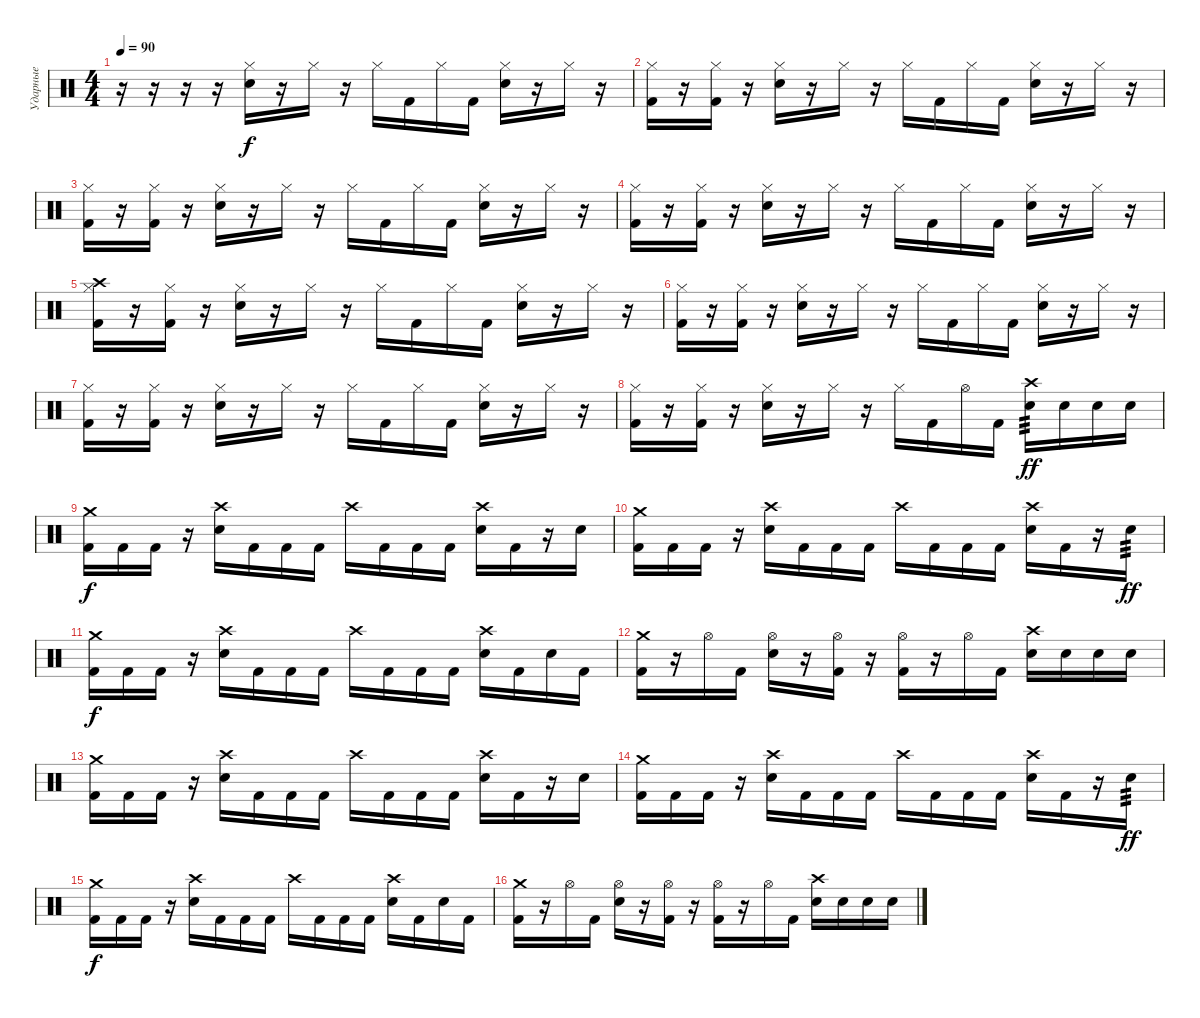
\track ("Ударные" "Ударные") {instrument percussion}
\staff {score}
\articulation defaults
\ts (4 4)
\tempo 90
\clef neutral
\ks c
r.16{dy f} r.16 r.16 r.16 ("Hi-Hat (closed)" "Electric Snare (hit)").16 r.16 "Hi-Hat (closed)".16 r.16 "Hi-Hat (closed)".16 "Kick (hit) 2".16 "Hi-Hat (closed)".16 "Kick (hit) 2".16 ("Hi-Hat (closed)" "Electric Snare (hit)").16 r.16 "Hi-Hat (closed)".16 r.16 |
("Hi-Hat (closed)" "Kick (hit) 2").16 r.16 ("Hi-Hat (closed)" "Kick (hit) 2").16 r.16 ("Hi-Hat (closed)" "Electric Snare (hit)").16 r.16 "Hi-Hat (closed)".16 r.16 "Hi-Hat (closed)".16 "Kick (hit) 2".16 "Hi-Hat (closed)".16 "Kick (hit) 2".16 ("Hi-Hat (closed)" "Electric Snare (hit)").16 r.16 "Hi-Hat (closed)".16 r.16 |
("Hi-Hat (closed)" "Kick (hit) 2").16 r.16 ("Hi-Hat (closed)" "Kick (hit) 2").16 r.16 ("Hi-Hat (closed)" "Electric Snare (hit)").16 r.16 "Hi-Hat (closed)".16 r.16 "Hi-Hat (closed)".16 "Kick (hit) 2".16 "Hi-Hat (closed)".16 "Kick (hit) 2".16 ("Hi-Hat (closed)" "Electric Snare (hit)").16 r.16 "Hi-Hat (closed)".16 r.16 |
("Hi-Hat (closed)" "Kick (hit) 2").16 r.16 ("Hi-Hat (closed)" "Kick (hit) 2").16 r.16 ("Hi-Hat (closed)" "Electric Snare (hit)").16 r.16 "Hi-Hat (closed)".16 r.16 "Hi-Hat (closed)".16 "Kick (hit) 2".16 "Hi-Hat (closed)".16 "Kick (hit) 2".16 ("Hi-Hat (closed)" "Electric Snare (hit)").16 r.16 "Hi-Hat (closed)".16 r.16 |
("Crash high (hit)" "Hi-Hat (closed)" "Kick (hit) 2").16 r.16 ("Hi-Hat (closed)" "Kick (hit) 2").16 r.16 ("Hi-Hat (closed)" "Electric Snare (hit)").16 r.16 "Hi-Hat (closed)".16 r.16 "Hi-Hat (closed)".16 "Kick (hit) 2".16 "Hi-Hat (closed)".16 "Kick (hit) 2".16 ("Hi-Hat (closed)" "Electric Snare (hit)").16 r.16 "Hi-Hat (closed)".16 r.16 |
("Hi-Hat (closed)" "Kick (hit) 2").16 r.16 ("Hi-Hat (closed)" "Kick (hit) 2").16 r.16 ("Hi-Hat (closed)" "Electric Snare (hit)").16 r.16 "Hi-Hat (closed)".16 r.16 "Hi-Hat (closed)".16 "Kick (hit) 2".16 "Hi-Hat (closed)".16 "Kick (hit) 2".16 ("Hi-Hat (closed)" "Electric Snare (hit)").16 r.16 "Hi-Hat (closed)".16 r.16 |
("Hi-Hat (closed)" "Kick (hit) 2").16 r.16 ("Hi-Hat (closed)" "Kick (hit) 2").16 r.16 ("Hi-Hat (closed)" "Electric Snare (hit)").16 r.16 "Hi-Hat (closed)".16 r.16 "Hi-Hat (closed)".16 "Kick (hit) 2".16 "Hi-Hat (closed)".16 "Kick (hit) 2".16 ("Hi-Hat (closed)" "Electric Snare (hit)").16 r.16 "Hi-Hat (closed)".16 r.16 |
("Hi-Hat (closed)" "Kick (hit) 2").16 r.16 ("Hi-Hat (closed)" "Kick (hit) 2").16 r.16 ("Hi-Hat (closed)" "Electric Snare (hit)").16 r.16 "Hi-Hat (closed)".16 r.16 "Hi-Hat (closed)".16 "Kick (hit) 2".16 "Hi-Hat (open)".16 "Kick (hit) 2".16 ("Crash high (hit)" "Electric Snare (hit)").16{tp 3 dy ff} "Electric Snare (hit)".16 "Electric Snare (hit)".16 "Electric Snare (hit)".16 |
("Crash medium (hit)" "Kick (hit) 2").16{dy f} "Kick (hit) 2".16 "Kick (hit) 2".16 r.16 ("Crash high (hit)" "Electric Snare (hit)").16 "Kick (hit) 2".16 "Kick (hit) 2".16 "Kick (hit) 2".16 "Crash high (hit)".16 "Kick (hit) 2".16 "Kick (hit) 2".16 "Kick (hit) 2".16 ("Crash high (hit)" "Electric Snare (hit)").16 "Kick (hit) 2".16 r.16 "Electric Snare (hit)".16 |
("Crash medium (hit)" "Kick (hit) 2").16 "Kick (hit) 2".16 "Kick (hit) 2".16 r.16 ("Crash high (hit)" "Electric Snare (hit)").16 "Kick (hit) 2".16 "Kick (hit) 2".16 "Kick (hit) 2".16 "Crash high (hit)".16 "Kick (hit) 2".16 "Kick (hit) 2".16 "Kick (hit) 2".16 ("Crash high (hit)" "Electric Snare (hit)").16 "Kick (hit) 2".16 r.16 "Electric Snare (hit)".16{tp 3 dy ff} |
("Crash medium (hit)" "Kick (hit) 2").16{dy f} "Kick (hit) 2".16 "Kick (hit) 2".16 r.16 ("Crash high (hit)" "Electric Snare (hit)").16 "Kick (hit) 2".16 "Kick (hit) 2".16 "Kick (hit) 2".16 "Crash high (hit)".16 "Kick (hit) 2".16 "Kick (hit) 2".16 "Kick (hit) 2".16 ("Crash high (hit)" "Electric Snare (hit)").16 "Kick (hit) 2".16 "Electric Snare (hit)".16 "Kick (hit) 2".16 |
("Crash medium (hit)" "Kick (hit) 2").16 r.16 "Hi-Hat (open)".16 "Kick (hit) 2".16 ("Hi-Hat (open)" "Electric Snare (hit)").16 r.16 ("Hi-Hat (open)" "Kick (hit) 2").16 r.16 ("Hi-Hat (open)" "Kick (hit) 2").16 r.16 "Hi-Hat (open)".16 "Kick (hit) 2".16 ("Crash high (hit)" "Electric Snare (hit)").16 "Electric Snare (hit)".16 "Electric Snare (hit)".16 "Electric Snare (hit)".16 |
("Crash medium (hit)" "Kick (hit) 2").16 "Kick (hit) 2".16 "Kick (hit) 2".16 r.16 ("Crash high (hit)" "Electric Snare (hit)").16 "Kick (hit) 2".16 "Kick (hit) 2".16 "Kick (hit) 2".16 "Crash high (hit)".16 "Kick (hit) 2".16 "Kick (hit) 2".16 "Kick (hit) 2".16 ("Crash high (hit)" "Electric Snare (hit)").16 "Kick (hit) 2".16 r.16 "Electric Snare (hit)".16 |
("Crash medium (hit)" "Kick (hit) 2").16 "Kick (hit) 2".16 "Kick (hit) 2".16 r.16 ("Crash high (hit)" "Electric Snare (hit)").16 "Kick (hit) 2".16 "Kick (hit) 2".16 "Kick (hit) 2".16 "Crash high (hit)".16 "Kick (hit) 2".16 "Kick (hit) 2".16 "Kick (hit) 2".16 ("Crash high (hit)" "Electric Snare (hit)").16 "Kick (hit) 2".16 r.16 "Electric Snare (hit)".16{tp 3 dy ff} |
("Crash medium (hit)" "Kick (hit) 2").16{dy f} "Kick (hit) 2".16 "Kick (hit) 2".16 r.16 ("Crash high (hit)" "Electric Snare (hit)").16 "Kick (hit) 2".16 "Kick (hit) 2".16 "Kick (hit) 2".16 "Crash high (hit)".16 "Kick (hit) 2".16 "Kick (hit) 2".16 "Kick (hit) 2".16 ("Crash high (hit)" "Electric Snare (hit)").16 "Kick (hit) 2".16 "Electric Snare (hit)".16 "Kick (hit) 2".16 |
("Crash medium (hit)" "Kick (hit) 2").16 r.16 "Hi-Hat (open)".16 "Kick (hit) 2".16 ("Hi-Hat (open)" "Electric Snare (hit)").16 r.16 ("Hi-Hat (open)" "Kick (hit) 2").16 r.16 ("Hi-Hat (open)" "Kick (hit) 2").16 r.16 "Hi-Hat (open)".16 "Kick (hit) 2".16 ("Crash high (hit)" "Electric Snare (hit)").16 "Electric Snare (hit)".16 "Electric Snare (hit)".16 "Electric Snare (hit)".16
